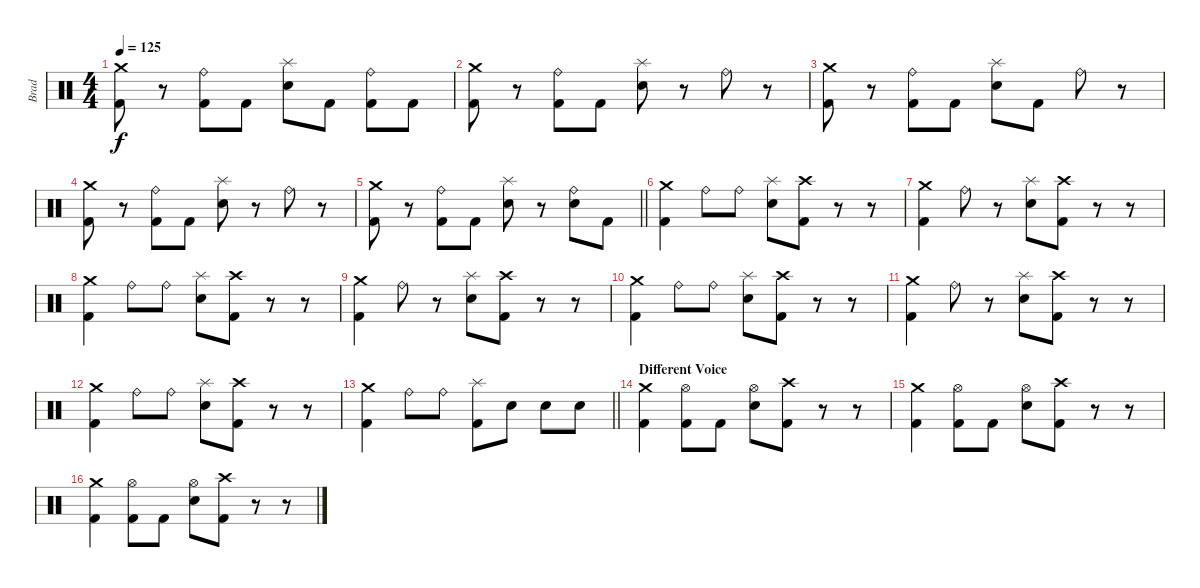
\track ("Brad" "Brad") {instrument percussion}
\staff {score}
\articulation defaults
\ts (4 4)
\tempo 125
\clef neutral
\ks c
("Crash medium (hit)" "Kick (hit) 2").8{dy f} r.8 ("Ride (bell)" "Kick (hit) 2").8 "Kick (hit) 2".8 ("Splash (hit)" "Electric Snare (hit)").8 "Kick (hit) 2".8 ("Ride (bell)" "Kick (hit) 2").8 "Kick (hit) 2".8 |
("Crash medium (hit)" "Kick (hit) 2").8 r.8 ("Ride (bell)" "Kick (hit) 2").8 "Kick (hit) 2".8 ("Splash (hit)" "Electric Snare (hit)").8 r.8 "Ride (bell)".8 r.8 |
("Crash medium (hit)" "Kick (hit) 2").8 r.8 ("Ride (bell)" "Kick (hit) 2").8 "Kick (hit) 2".8 ("Splash (hit)" "Electric Snare (hit)").8 "Kick (hit) 2".8 "Ride (bell)".8 r.8 |
("Crash medium (hit)" "Kick (hit) 2").8 r.8 ("Ride (bell)" "Kick (hit) 2").8 "Kick (hit) 2".8 ("Splash (hit)" "Electric Snare (hit)").8 r.8 "Ride (bell)".8 r.8 |
\barLineRight lightlight
("Crash medium (hit)" "Kick (hit) 2").8 r.8 ("Ride (bell)" "Kick (hit) 2").8 "Kick (hit) 2".8 ("Splash (hit)" "Electric Snare (hit)").8 r.8 ("Ride (bell)" "Electric Snare (hit)").8 "Kick (hit) 2".8 |
("Crash medium (hit)" "Kick (hit) 2").4 "Ride (bell)".8 "Ride (bell)".8 ("Splash (hit)" "Electric Snare (hit)").8 ("Crash high (hit)" "Kick (hit) 2").8 r.8 r.8 |
("Crash medium (hit)" "Kick (hit) 2").4 "Ride (bell)".8 r.8 ("Splash (hit)" "Electric Snare (hit)").8 ("Crash high (hit)" "Kick (hit) 2").8 r.8 r.8 |
("Crash medium (hit)" "Kick (hit) 2").4 "Ride (bell)".8 "Ride (bell)".8 ("Splash (hit)" "Electric Snare (hit)").8 ("Crash high (hit)" "Kick (hit) 2").8 r.8 r.8 |
("Crash medium (hit)" "Kick (hit) 2").4 "Ride (bell)".8 r.8 ("Splash (hit)" "Electric Snare (hit)").8 ("Crash high (hit)" "Kick (hit) 2").8 r.8 r.8 |
("Crash medium (hit)" "Kick (hit) 2").4 "Ride (bell)".8 "Ride (bell)".8 ("Splash (hit)" "Electric Snare (hit)").8 ("Crash high (hit)" "Kick (hit) 2").8 r.8 r.8 |
("Crash medium (hit)" "Kick (hit) 2").4 "Ride (bell)".8 r.8 ("Splash (hit)" "Electric Snare (hit)").8 ("Crash high (hit)" "Kick (hit) 2").8 r.8 r.8 |
("Crash medium (hit)" "Kick (hit) 2").4 "Ride (bell)".8 "Ride (bell)".8 ("Splash (hit)" "Electric Snare (hit)").8 ("Crash high (hit)" "Kick (hit) 2").8 r.8 r.8 |
\barLineRight lightlight
("Crash medium (hit)" "Kick (hit) 2").4 "Ride (bell)".8 "Ride (bell)".8 ("Splash (hit)" "Kick (hit) 2").8 "Electric Snare (hit)".8 "Electric Snare (hit)".8 "Electric Snare (hit)".8 |
\section ("" "Different Voice")
("Crash medium (hit)" "Kick (hit) 2").4 ("Hi-Hat (open)" "Kick (hit) 2").8 "Kick (hit) 2".8 ("Hi-Hat (open)" "Electric Snare (hit)").8 ("Crash high (hit)" "Kick (hit) 2").8 r.8 r.8 |
("Crash medium (hit)" "Kick (hit) 2").4 ("Hi-Hat (open)" "Kick (hit) 2").8 "Kick (hit) 2".8 ("Hi-Hat (open)" "Electric Snare (hit)").8 ("Crash high (hit)" "Kick (hit) 2").8 r.8 r.8 |
("Crash medium (hit)" "Kick (hit) 2").4 ("Hi-Hat (open)" "Kick (hit) 2").8 "Kick (hit) 2".8 ("Hi-Hat (open)" "Electric Snare (hit)").8 ("Crash high (hit)" "Kick (hit) 2").8 r.8 r.8
